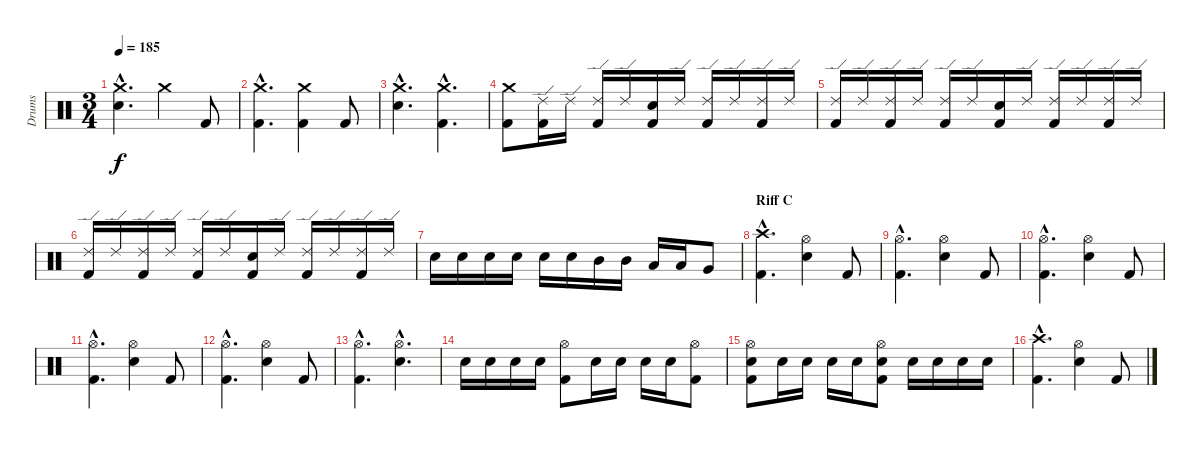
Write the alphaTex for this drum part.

\track ("Drums" "Drums") {instrument percussion}
\staff {score}
\articulation defaults
\ts (3 4)
\tempo 185
\clef neutral
\ks c
("Crash medium (hit)"{hac} "Electric Snare (hit)"{hac}).4{d dy f} "Crash medium (hit)".4 "Kick (hit) 2".8 |
("Crash medium (hit)"{hac} "Kick (hit) 2"{hac}).4{d} ("Crash medium (hit)" "Kick (hit) 2").4 "Kick (hit) 2".8 |
("Crash medium (hit)"{hac} "Electric Snare (hit)"{hac}).4{d} ("Crash medium (hit)"{hac} "Kick (hit) 2"{hac}).4{d} |
("Crash medium (hit)" "Kick (hit) 2").8 ("Ride (edge) 2" "Kick (hit) 2").16 "Ride (edge) 2".16 ("Ride (edge) 2" "Kick (hit) 2").16 "Ride (edge) 2".16 ("Electric Snare (hit)" "Kick (hit) 2").16 "Ride (edge) 2".16 ("Ride (edge) 2" "Kick (hit) 2").16 "Ride (edge) 2".16 ("Ride (edge) 2" "Kick (hit) 2").16 "Ride (edge) 2".16 |
("Ride (edge) 2" "Kick (hit) 2").16 "Ride (edge) 2".16 ("Ride (edge) 2" "Kick (hit) 2").16 "Ride (edge) 2".16 ("Ride (edge) 2" "Kick (hit) 2").16 "Ride (edge) 2".16 ("Electric Snare (hit)" "Kick (hit) 2").16 "Ride (edge) 2".16 ("Ride (edge) 2" "Kick (hit) 2").16 "Ride (edge) 2".16 ("Ride (edge) 2" "Kick (hit) 2").16 "Ride (edge) 2".16 |
("Ride (edge) 2" "Kick (hit) 2").16 "Ride (edge) 2".16 ("Ride (edge) 2" "Kick (hit) 2").16 "Ride (edge) 2".16 ("Ride (edge) 2" "Kick (hit) 2").16 "Ride (edge) 2".16 ("Electric Snare (hit)" "Kick (hit) 2").16 "Ride (edge) 2".16 ("Ride (edge) 2" "Kick (hit) 2").16 "Ride (edge) 2".16 ("Ride (edge) 2" "Kick (hit) 2").16 "Ride (edge) 2".16 |
"Electric Snare (hit)".16 "Electric Snare (hit)".16 "Electric Snare (hit)".16 "Electric Snare (hit)".16 "Electric Snare (hit)".16 "Electric Snare (hit)".16 "Mid Tom (hit)".16 "Mid Tom (hit)".16 "Low Tom (hit)".16 "Low Tom (hit)".16 "Very Low Tom (hit)".8 |
\section ("" "Riff C")
("Crash high (hit)"{hac} "Kick (hit) 2"{hac}).4{d} ("Hi-Hat (open)" "Electric Snare (hit)").4 "Kick (hit) 2".8 |
("Hi-Hat (open)"{hac} "Kick (hit) 2"{hac}).4{d} ("Hi-Hat (open)" "Electric Snare (hit)").4 "Kick (hit) 2".8 |
("Hi-Hat (open)"{hac} "Kick (hit) 2"{hac}).4{d} ("Hi-Hat (open)" "Electric Snare (hit)").4 "Kick (hit) 2".8 |
("Hi-Hat (open)"{hac} "Kick (hit) 2"{hac}).4{d} ("Hi-Hat (open)" "Electric Snare (hit)").4 "Kick (hit) 2".8 |
("Hi-Hat (open)"{hac} "Kick (hit) 2"{hac}).4{d} ("Hi-Hat (open)" "Electric Snare (hit)").4 "Kick (hit) 2".8 |
("Hi-Hat (open)"{hac} "Kick (hit) 2"{hac}).4{d} ("Hi-Hat (open)"{hac} "Electric Snare (hit)"{hac}).4{d} |
"Electric Snare (hit)".16 "Electric Snare (hit)".16 "Electric Snare (hit)".16 "Electric Snare (hit)".16 ("Hi-Hat (open)" "Kick (hit) 2").8 "Electric Snare (hit)".16 "Electric Snare (hit)".16 "Electric Snare (hit)".16 "Electric Snare (hit)".16 ("Hi-Hat (open)" "Kick (hit) 2").8 |
("Hi-Hat (open)" "Electric Snare (hit)" "Kick (hit) 2").8 "Electric Snare (hit)".16 "Electric Snare (hit)".16 "Electric Snare (hit)".16 "Electric Snare (hit)".16 ("Hi-Hat (open)" "Electric Snare (hit)" "Kick (hit) 2").8 "Electric Snare (hit)".16 "Electric Snare (hit)".16 "Electric Snare (hit)".16 "Electric Snare (hit)".16 |
("Crash high (hit)"{hac} "Kick (hit) 2"{hac}).4{d} ("Hi-Hat (open)" "Electric Snare (hit)").4 "Kick (hit) 2".8
